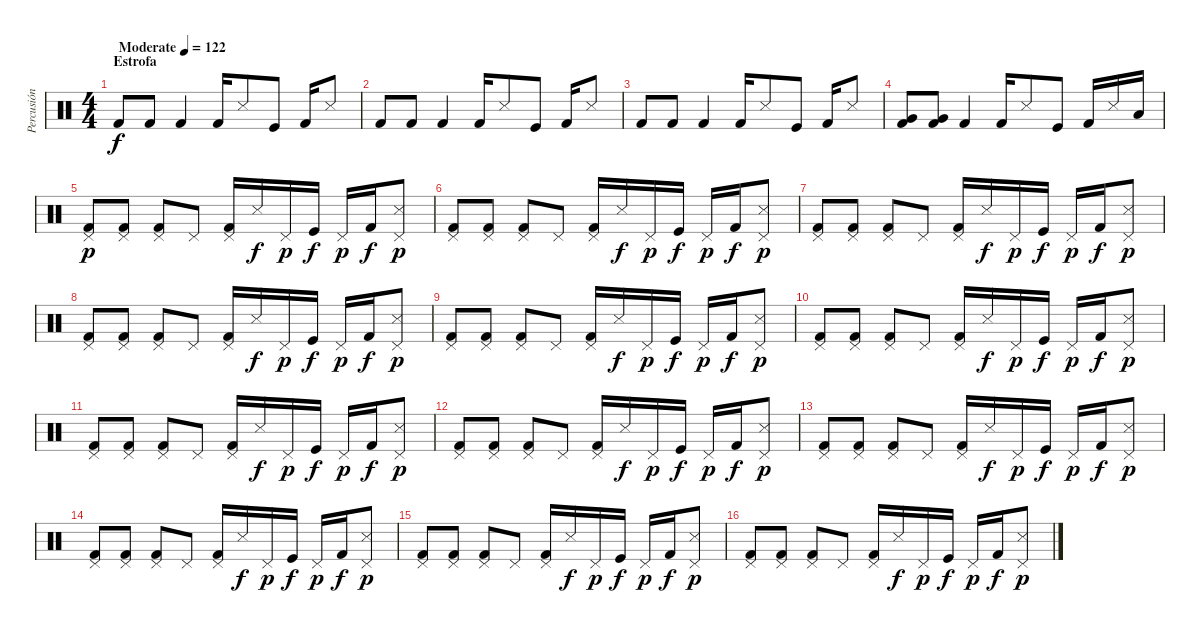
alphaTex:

\track ("Percusión" "Percusión") {instrument percussion}
\staff {score}
\articulation defaults
\ts (4 4)
\section ("" "Estrofa ")
\tempo (122 "Moderate")
\clef neutral
\ks c "Kick (hit) 2".8{dy f} "Kick (hit) 2".8 "Kick (hit) 2".4 "Kick (hit) 2".16 "Snare (side stick) 3".8 "Kick (hit)".8 "Kick (hit) 2".16 "Snare (side stick) 3".8
|
"Kick (hit) 2".8 "Kick (hit) 2".8 "Kick (hit) 2".4 "Kick (hit) 2".16 "Snare (side stick) 3".8 "Kick (hit)".8 "Kick (hit) 2".16 "Snare (side stick) 3".8 |
"Kick (hit) 2".8 "Kick (hit) 2".8 "Kick (hit) 2".4 "Kick (hit) 2".16 "Snare (side stick) 3".8 "Kick (hit)".8 "Kick (hit) 2".16 "Snare (side stick) 3".8 |
("Very Low Tom (hit)" "Kick (hit) 2").8 ("Very Low Tom (hit)" "Kick (hit) 2").8 "Kick (hit) 2".4 "Kick (hit) 2".16 "Snare (side stick) 3".8 "Kick (hit)".8 "Kick (hit) 2".16 "Snare (side stick) 3".16 "Low Tom (hit)".16 |
("Pedal Hi-Hat (hit)" "Kick (hit) 2").8{dy p} ("Pedal Hi-Hat (hit)" "Kick (hit) 2").8 ("Pedal Hi-Hat (hit)" "Kick (hit) 2").8 "Pedal Hi-Hat (hit)".8 ("Pedal Hi-Hat (hit)" "Kick (hit) 2").16 "Snare (side stick) 3".16{dy f} "Pedal Hi-Hat (hit)".16{dy p} "Kick (hit)".16{dy f} "Pedal Hi-Hat (hit)".16{dy p} "Kick (hit) 2".16{dy f} ("Pedal Hi-Hat (hit)" "Snare (side stick) 3").8{dy p} |
("Pedal Hi-Hat (hit)" "Kick (hit) 2").8 ("Pedal Hi-Hat (hit)" "Kick (hit) 2").8 ("Pedal Hi-Hat (hit)" "Kick (hit) 2").8 "Pedal Hi-Hat (hit)".8 ("Pedal Hi-Hat (hit)" "Kick (hit) 2").16 "Snare (side stick) 3".16{dy f} "Pedal Hi-Hat (hit)".16{dy p} "Kick (hit)".16{dy f} "Pedal Hi-Hat (hit)".16{dy p} "Kick (hit) 2".16{dy f} ("Pedal Hi-Hat (hit)" "Snare (side stick) 3").8{dy p} |
("Pedal Hi-Hat (hit)" "Kick (hit) 2").8 ("Pedal Hi-Hat (hit)" "Kick (hit) 2").8 ("Pedal Hi-Hat (hit)" "Kick (hit) 2").8 "Pedal Hi-Hat (hit)".8 ("Pedal Hi-Hat (hit)" "Kick (hit) 2").16 "Snare (side stick) 3".16{dy f} "Pedal Hi-Hat (hit)".16{dy p} "Kick (hit)".16{dy f} "Pedal Hi-Hat (hit)".16{dy p} "Kick (hit) 2".16{dy f} ("Pedal Hi-Hat (hit)" "Snare (side stick) 3").8{dy p} |
("Pedal Hi-Hat (hit)" "Kick (hit) 2").8 ("Pedal Hi-Hat (hit)" "Kick (hit) 2").8 ("Pedal Hi-Hat (hit)" "Kick (hit) 2").8 "Pedal Hi-Hat (hit)".8 ("Pedal Hi-Hat (hit)" "Kick (hit) 2").16 "Snare (side stick) 3".16{dy f} "Pedal Hi-Hat (hit)".16{dy p} "Kick (hit)".16{dy f} "Pedal Hi-Hat (hit)".16{dy p} "Kick (hit) 2".16{dy f} ("Pedal Hi-Hat (hit)" "Snare (side stick) 3").8{dy p} |
("Pedal Hi-Hat (hit)" "Kick (hit) 2").8 ("Pedal Hi-Hat (hit)" "Kick (hit) 2").8 ("Pedal Hi-Hat (hit)" "Kick (hit) 2").8 "Pedal Hi-Hat (hit)".8 ("Pedal Hi-Hat (hit)" "Kick (hit) 2").16 "Snare (side stick) 3".16{dy f} "Pedal Hi-Hat (hit)".16{dy p} "Kick (hit)".16{dy f} "Pedal Hi-Hat (hit)".16{dy p} "Kick (hit) 2".16{dy f} ("Pedal Hi-Hat (hit)" "Snare (side stick) 3").8{dy p} |
("Pedal Hi-Hat (hit)" "Kick (hit) 2").8 ("Pedal Hi-Hat (hit)" "Kick (hit) 2").8 ("Pedal Hi-Hat (hit)" "Kick (hit) 2").8 "Pedal Hi-Hat (hit)".8 ("Pedal Hi-Hat (hit)" "Kick (hit) 2").16 "Snare (side stick) 3".16{dy f} "Pedal Hi-Hat (hit)".16{dy p} "Kick (hit)".16{dy f} "Pedal Hi-Hat (hit)".16{dy p} "Kick (hit) 2".16{dy f} ("Pedal Hi-Hat (hit)" "Snare (side stick) 3").8{dy p} |
("Pedal Hi-Hat (hit)" "Kick (hit) 2").8 ("Pedal Hi-Hat (hit)" "Kick (hit) 2").8 ("Pedal Hi-Hat (hit)" "Kick (hit) 2").8 "Pedal Hi-Hat (hit)".8 ("Pedal Hi-Hat (hit)" "Kick (hit) 2").16 "Snare (side stick) 3".16{dy f} "Pedal Hi-Hat (hit)".16{dy p} "Kick (hit)".16{dy f} "Pedal Hi-Hat (hit)".16{dy p} "Kick (hit) 2".16{dy f} ("Pedal Hi-Hat (hit)" "Snare (side stick) 3").8{dy p} |
("Pedal Hi-Hat (hit)" "Kick (hit) 2").8 ("Pedal Hi-Hat (hit)" "Kick (hit) 2").8 ("Pedal Hi-Hat (hit)" "Kick (hit) 2").8 "Pedal Hi-Hat (hit)".8 ("Pedal Hi-Hat (hit)" "Kick (hit) 2").16 "Snare (side stick) 3".16{dy f} "Pedal Hi-Hat (hit)".16{dy p} "Kick (hit)".16{dy f} "Pedal Hi-Hat (hit)".16{dy p} "Kick (hit) 2".16{dy f} ("Pedal Hi-Hat (hit)" "Snare (side stick) 3").8{dy p} |
("Pedal Hi-Hat (hit)" "Kick (hit) 2").8 ("Pedal Hi-Hat (hit)" "Kick (hit) 2").8 ("Pedal Hi-Hat (hit)" "Kick (hit) 2").8 "Pedal Hi-Hat (hit)".8 ("Pedal Hi-Hat (hit)" "Kick (hit) 2").16 "Snare (side stick) 3".16{dy f} "Pedal Hi-Hat (hit)".16{dy p} "Kick (hit)".16{dy f} "Pedal Hi-Hat (hit)".16{dy p} "Kick (hit) 2".16{dy f} ("Pedal Hi-Hat (hit)" "Snare (side stick) 3").8{dy p} |
("Pedal Hi-Hat (hit)" "Kick (hit) 2").8 ("Pedal Hi-Hat (hit)" "Kick (hit) 2").8 ("Pedal Hi-Hat (hit)" "Kick (hit) 2").8 "Pedal Hi-Hat (hit)".8 ("Pedal Hi-Hat (hit)" "Kick (hit) 2").16 "Snare (side stick) 3".16{dy f} "Pedal Hi-Hat (hit)".16{dy p} "Kick (hit)".16{dy f} "Pedal Hi-Hat (hit)".16{dy p} "Kick (hit) 2".16{dy f} ("Pedal Hi-Hat (hit)" "Snare (side stick) 3").8{dy p} |
("Pedal Hi-Hat (hit)" "Kick (hit) 2").8 ("Pedal Hi-Hat (hit)" "Kick (hit) 2").8 ("Pedal Hi-Hat (hit)" "Kick (hit) 2").8 "Pedal Hi-Hat (hit)".8 ("Pedal Hi-Hat (hit)" "Kick (hit) 2").16 "Snare (side stick) 3".16{dy f} "Pedal Hi-Hat (hit)".16{dy p} "Kick (hit)".16{dy f} "Pedal Hi-Hat (hit)".16{dy p} "Kick (hit) 2".16{dy f} ("Pedal Hi-Hat (hit)" "Snare (side stick) 3").8{dy p} |
("Pedal Hi-Hat (hit)" "Kick (hit) 2").8 ("Pedal Hi-Hat (hit)" "Kick (hit) 2").8 ("Pedal Hi-Hat (hit)" "Kick (hit) 2").8 "Pedal Hi-Hat (hit)".8 ("Pedal Hi-Hat (hit)" "Kick (hit) 2").16 "Snare (side stick) 3".16{dy f} "Pedal Hi-Hat (hit)".16{dy p} "Kick (hit)".16{dy f} "Pedal Hi-Hat (hit)".16{dy p} "Kick (hit) 2".16{dy f} ("Pedal Hi-Hat (hit)" "Snare (side stick) 3").8{dy p}
